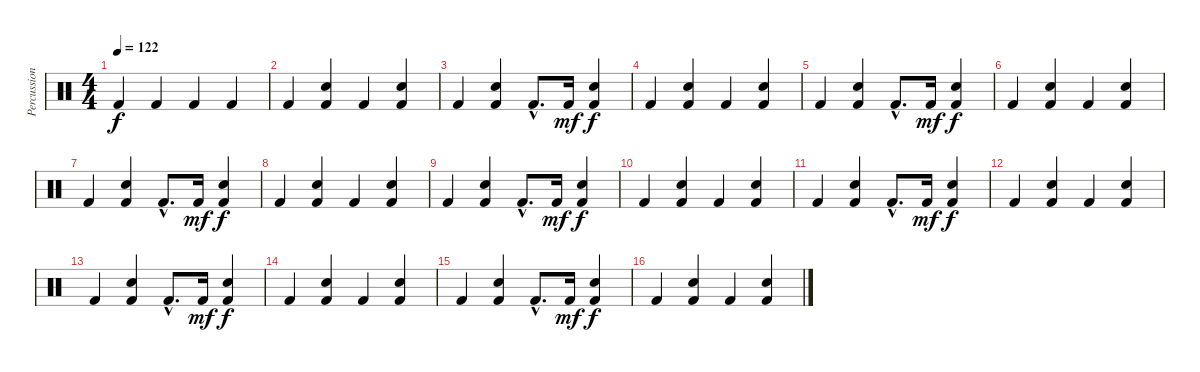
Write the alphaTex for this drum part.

\track ("Percussion" "Percussion") {instrument percussion}
\staff {score}
\articulation defaults
\ts (4 4)
\tempo 122
\clef neutral
\ks c "Kick (hit) 2".4{dy f volume 16 balance 8} "Kick (hit) 2".4 "Kick (hit) 2".4 "Kick (hit) 2".4
|
"Kick (hit) 2".4 ("Snare (hit) 2" "Kick (hit) 2").4 "Kick (hit) 2".4 ("Snare (hit) 2" "Kick (hit) 2").4 |
"Kick (hit) 2".4 ("Snare (hit) 2" "Kick (hit) 2").4 "Kick (hit) 2"{hac}.8{d} "Kick (hit) 2".16{dy mf} ("Snare (hit) 2" "Kick (hit) 2").4{dy f} |
"Kick (hit) 2".4 ("Snare (hit) 2" "Kick (hit) 2").4 "Kick (hit) 2".4 ("Snare (hit) 2" "Kick (hit) 2").4 |
"Kick (hit) 2".4 ("Snare (hit) 2" "Kick (hit) 2").4 "Kick (hit) 2"{hac}.8{d} "Kick (hit) 2".16{dy mf} ("Snare (hit) 2" "Kick (hit) 2").4{dy f} |
"Kick (hit) 2".4 ("Snare (hit) 2" "Kick (hit) 2").4 "Kick (hit) 2".4 ("Snare (hit) 2" "Kick (hit) 2").4 |
"Kick (hit) 2".4 ("Snare (hit) 2" "Kick (hit) 2").4 "Kick (hit) 2"{hac}.8{d} "Kick (hit) 2".16{dy mf} ("Snare (hit) 2" "Kick (hit) 2").4{dy f} |
"Kick (hit) 2".4 ("Snare (hit) 2" "Kick (hit) 2").4 "Kick (hit) 2".4 ("Snare (hit) 2" "Kick (hit) 2").4 |
"Kick (hit) 2".4 ("Snare (hit) 2" "Kick (hit) 2").4 "Kick (hit) 2"{hac}.8{d} "Kick (hit) 2".16{dy mf} ("Snare (hit) 2" "Kick (hit) 2").4{dy f} |
"Kick (hit) 2".4 ("Snare (hit) 2" "Kick (hit) 2").4 "Kick (hit) 2".4 ("Snare (hit) 2" "Kick (hit) 2").4 |
"Kick (hit) 2".4 ("Snare (hit) 2" "Kick (hit) 2").4 "Kick (hit) 2"{hac}.8{d} "Kick (hit) 2".16{dy mf} ("Snare (hit) 2" "Kick (hit) 2").4{dy f} |
"Kick (hit) 2".4 ("Snare (hit) 2" "Kick (hit) 2").4 "Kick (hit) 2".4 ("Snare (hit) 2" "Kick (hit) 2").4 |
"Kick (hit) 2".4 ("Snare (hit) 2" "Kick (hit) 2").4 "Kick (hit) 2"{hac}.8{d} "Kick (hit) 2".16{dy mf} ("Snare (hit) 2" "Kick (hit) 2").4{dy f} |
"Kick (hit) 2".4 ("Snare (hit) 2" "Kick (hit) 2").4 "Kick (hit) 2".4 ("Snare (hit) 2" "Kick (hit) 2").4 |
"Kick (hit) 2".4 ("Snare (hit) 2" "Kick (hit) 2").4 "Kick (hit) 2"{hac}.8{d} "Kick (hit) 2".16{dy mf} ("Snare (hit) 2" "Kick (hit) 2").4{dy f} |
"Kick (hit) 2".4 ("Snare (hit) 2" "Kick (hit) 2").4 "Kick (hit) 2".4 ("Snare (hit) 2" "Kick (hit) 2").4
